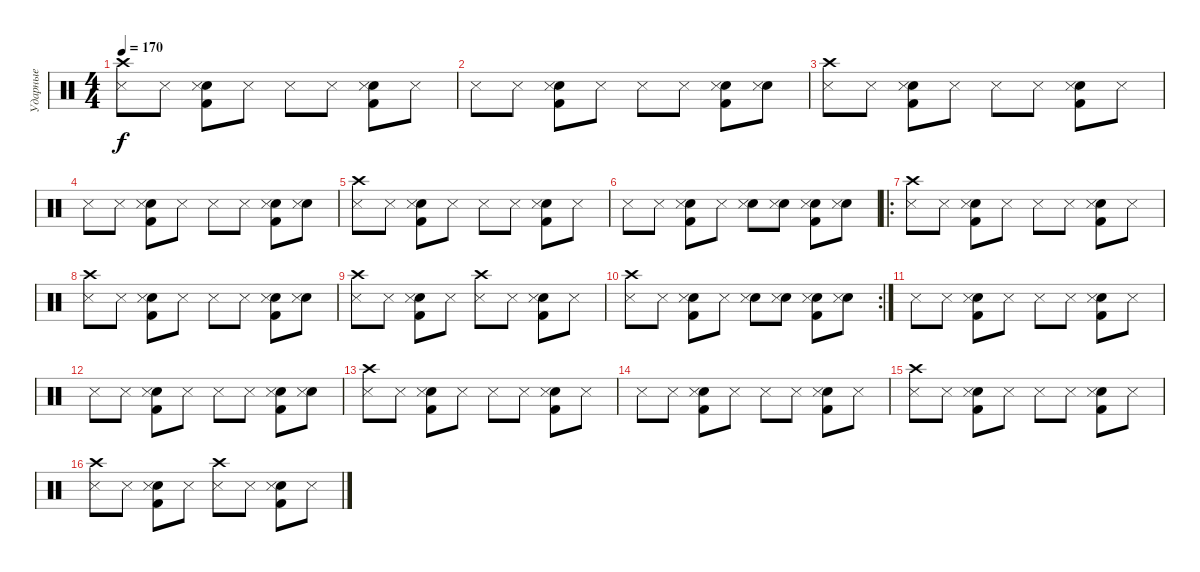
\track ("Ударные" "Ударные") {instrument percussion}
\staff {score}
\articulation defaults
\ts (4 4)
\tempo 170
\clef neutral
\ks c
("Crash high (hit)" "Snare (side stick) 3").8{dy f} "Snare (side stick) 3".8 ("Kick (hit) 2" "Snare (hit) 2" "Snare (side stick) 3").8 "Snare (side stick) 3".8 "Snare (side stick) 3".8 "Snare (side stick) 3".8 ("Kick (hit) 2" "Snare (hit) 2" "Snare (side stick) 3").8 "Snare (side stick) 3".8 |
"Snare (side stick) 3".8 "Snare (side stick) 3".8 ("Kick (hit) 2" "Snare (hit) 2" "Snare (side stick) 3").8 "Snare (side stick) 3".8 "Snare (side stick) 3".8 "Snare (side stick) 3".8 ("Kick (hit) 2" "Snare (hit) 2" "Snare (side stick) 3").8 ("Snare (hit) 2" "Snare (side stick) 3").8 |
("Crash high (hit)" "Snare (side stick) 3").8 "Snare (side stick) 3".8 ("Kick (hit) 2" "Snare (hit) 2" "Snare (side stick) 3").8 "Snare (side stick) 3".8 "Snare (side stick) 3".8 "Snare (side stick) 3".8 ("Kick (hit) 2" "Snare (hit) 2" "Snare (side stick) 3").8 "Snare (side stick) 3".8 |
"Snare (side stick) 3".8 "Snare (side stick) 3".8 ("Kick (hit) 2" "Snare (hit) 2" "Snare (side stick) 3").8 "Snare (side stick) 3".8 "Snare (side stick) 3".8 "Snare (side stick) 3".8 ("Kick (hit) 2" "Snare (hit) 2" "Snare (side stick) 3").8 ("Snare (hit) 2" "Snare (side stick) 3").8 |
("Crash high (hit)" "Snare (side stick) 3").8 "Snare (side stick) 3".8 ("Kick (hit) 2" "Snare (hit) 2" "Snare (side stick) 3").8 "Snare (side stick) 3".8 "Snare (side stick) 3".8 "Snare (side stick) 3".8 ("Kick (hit) 2" "Snare (hit) 2" "Snare (side stick) 3").8 "Snare (side stick) 3".8 |
"Snare (side stick) 3".8 "Snare (side stick) 3".8 ("Kick (hit) 2" "Snare (hit) 2" "Snare (side stick) 3").8 "Snare (side stick) 3".8 ("Snare (hit) 2" "Snare (side stick) 3").8 ("Snare (hit) 2" "Snare (side stick) 3").8 ("Kick (hit) 2" "Snare (hit) 2" "Snare (side stick) 3").8 ("Snare (hit) 2" "Snare (side stick) 3").8 |
\ro
("Crash high (hit)" "Snare (side stick) 3").8 "Snare (side stick) 3".8 ("Kick (hit) 2" "Snare (hit) 2" "Snare (side stick) 3").8 "Snare (side stick) 3".8 "Snare (side stick) 3".8 "Snare (side stick) 3".8 ("Kick (hit) 2" "Snare (hit) 2" "Snare (side stick) 3").8 "Snare (side stick) 3".8 |
("Crash high (hit)" "Snare (side stick) 3").8 "Snare (side stick) 3".8 ("Kick (hit) 2" "Snare (hit) 2" "Snare (side stick) 3").8 "Snare (side stick) 3".8 "Snare (side stick) 3".8 "Snare (side stick) 3".8 ("Kick (hit) 2" "Snare (hit) 2" "Snare (side stick) 3").8 ("Snare (hit) 2" "Snare (side stick) 3").8 |
("Crash high (hit)" "Snare (side stick) 3").8 "Snare (side stick) 3".8 ("Kick (hit) 2" "Snare (hit) 2" "Snare (side stick) 3").8 "Snare (side stick) 3".8 ("Crash high (hit)" "Snare (side stick) 3").8 "Snare (side stick) 3".8 ("Kick (hit) 2" "Snare (hit) 2" "Snare (side stick) 3").8 "Snare (side stick) 3".8 |
\rc 2
("Crash high (hit)" "Snare (side stick) 3").8 "Snare (side stick) 3".8 ("Kick (hit) 2" "Snare (hit) 2" "Snare (side stick) 3").8 "Snare (side stick) 3".8 ("Snare (hit) 2" "Snare (side stick) 3").8 ("Snare (hit) 2" "Snare (side stick) 3").8 ("Kick (hit) 2" "Snare (hit) 2" "Snare (side stick) 3").8 ("Snare (hit) 2" "Snare (side stick) 3").8 |
"Snare (side stick) 3".8 "Snare (side stick) 3".8 ("Kick (hit) 2" "Snare (hit) 2" "Snare (side stick) 3").8 "Snare (side stick) 3".8 "Snare (side stick) 3".8 "Snare (side stick) 3".8 ("Kick (hit) 2" "Snare (hit) 2" "Snare (side stick) 3").8 "Snare (side stick) 3".8 |
"Snare (side stick) 3".8 "Snare (side stick) 3".8 ("Kick (hit) 2" "Snare (hit) 2" "Snare (side stick) 3").8 "Snare (side stick) 3".8 "Snare (side stick) 3".8 "Snare (side stick) 3".8 ("Kick (hit) 2" "Snare (hit) 2" "Snare (side stick) 3").8 ("Snare (hit) 2" "Snare (side stick) 3").8 |
("Crash high (hit)" "Snare (side stick) 3").8 "Snare (side stick) 3".8 ("Kick (hit) 2" "Snare (hit) 2" "Snare (side stick) 3").8 "Snare (side stick) 3".8 "Snare (side stick) 3".8 "Snare (side stick) 3".8 ("Kick (hit) 2" "Snare (hit) 2" "Snare (side stick) 3").8 "Snare (side stick) 3".8 |
"Snare (side stick) 3".8 "Snare (side stick) 3".8 ("Kick (hit) 2" "Snare (hit) 2" "Snare (side stick) 3").8 "Snare (side stick) 3".8 "Snare (side stick) 3".8 "Snare (side stick) 3".8 ("Kick (hit) 2" "Snare (hit) 2" "Snare (side stick) 3").8 "Snare (side stick) 3".8 |
("Crash high (hit)" "Snare (side stick) 3").8 "Snare (side stick) 3".8 ("Kick (hit) 2" "Snare (hit) 2" "Snare (side stick) 3").8 "Snare (side stick) 3".8 "Snare (side stick) 3".8 "Snare (side stick) 3".8 ("Kick (hit) 2" "Snare (hit) 2" "Snare (side stick) 3").8 "Snare (side stick) 3".8 |
("Crash high (hit)" "Snare (side stick) 3").8 "Snare (side stick) 3".8 ("Kick (hit) 2" "Snare (hit) 2" "Snare (side stick) 3").8 "Snare (side stick) 3".8 ("Crash high (hit)" "Snare (side stick) 3").8 "Snare (side stick) 3".8 ("Kick (hit) 2" "Snare (hit) 2" "Snare (side stick) 3").8 "Snare (side stick) 3".8
